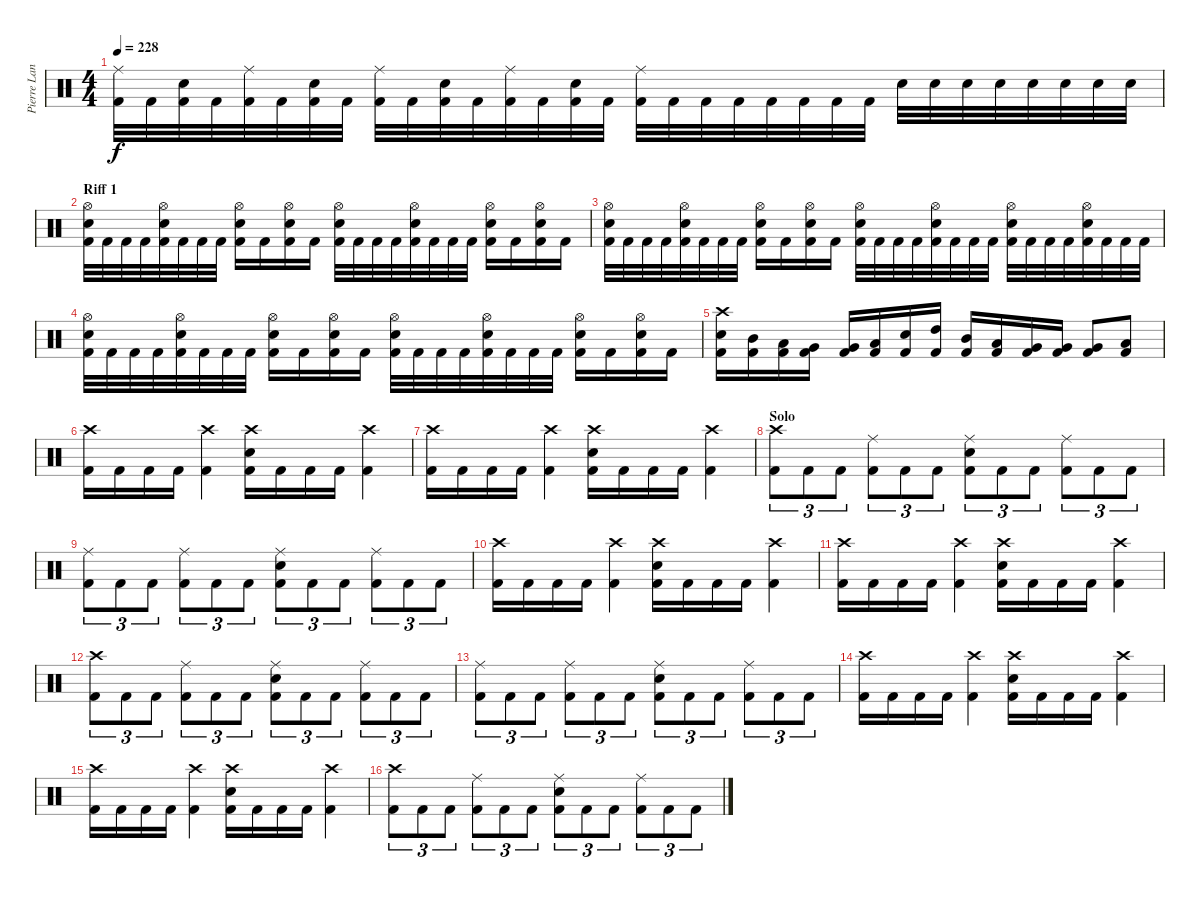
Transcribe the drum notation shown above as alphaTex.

\track ("Pierre Langlois (Drums)" "Pierre Lan") {instrument percussion}
\staff {score}
\articulation defaults
\ts (4 4)
\tempo 228
\clef neutral
\ks c
("Ride (middle)" "Kick (hit) 2").32{dy f} "Kick (hit) 2".32 ("Snare (hit) 2" "Kick (hit) 2").32 "Kick (hit) 2".32 ("Ride (middle)" "Kick (hit) 2").32 "Kick (hit) 2".32 ("Snare (hit) 2" "Kick (hit) 2").32 "Kick (hit) 2".32 ("Ride (middle)" "Kick (hit) 2").32 "Kick (hit) 2".32 ("Snare (hit) 2" "Kick (hit) 2").32 "Kick (hit) 2".32 ("Ride (middle)" "Kick (hit) 2").32 "Kick (hit) 2".32 ("Snare (hit) 2" "Kick (hit) 2").32 "Kick (hit) 2".32 ("Ride (middle)" "Kick (hit) 2").32 "Kick (hit) 2".32 "Kick (hit) 2".32 "Kick (hit) 2".32 "Kick (hit) 2".32 "Kick (hit) 2".32 "Kick (hit) 2".32 "Kick (hit) 2".32 "Snare (hit) 2".32 "Snare (hit) 2".32 "Snare (hit) 2".32 "Snare (hit) 2".32 "Snare (hit) 2".32 "Snare (hit) 2".32 "Snare (hit) 2".32 "Snare (hit) 2".32 |
\section ("" "Riff 1")
("Hi-Hat (open)" "Snare (hit) 2" "Kick (hit) 2").32 "Kick (hit) 2".32 "Kick (hit) 2".32 "Kick (hit) 2".32 ("Hi-Hat (open)" "Snare (hit) 2" "Kick (hit) 2").32 "Kick (hit) 2".32 "Kick (hit) 2".32 "Kick (hit) 2".32 ("Hi-Hat (open)" "Kick (hit) 2" "Snare (hit) 2").16 "Kick (hit) 2".16 ("Hi-Hat (open)" "Snare (hit) 2" "Kick (hit) 2").16 "Kick (hit) 2".16 ("Hi-Hat (open)" "Snare (hit) 2" "Kick (hit) 2").32 "Kick (hit) 2".32 "Kick (hit) 2".32 "Kick (hit) 2".32 ("Hi-Hat (open)" "Snare (hit) 2" "Kick (hit) 2").32 "Kick (hit) 2".32 "Kick (hit) 2".32 "Kick (hit) 2".32 ("Hi-Hat (open)" "Snare (hit) 2" "Kick (hit) 2").16 "Kick (hit) 2".16 ("Hi-Hat (open)" "Snare (hit) 2" "Kick (hit) 2").16 "Kick (hit) 2".16 |
("Hi-Hat (open)" "Snare (hit) 2" "Kick (hit) 2").32 "Kick (hit) 2".32 "Kick (hit) 2".32 "Kick (hit) 2".32 ("Hi-Hat (open)" "Snare (hit) 2" "Kick (hit) 2").32 "Kick (hit) 2".32 "Kick (hit) 2".32 "Kick (hit) 2".32 ("Hi-Hat (open)" "Kick (hit) 2" "Snare (hit) 2").16 "Kick (hit) 2".16 ("Hi-Hat (open)" "Snare (hit) 2" "Kick (hit) 2").16 "Kick (hit) 2".16 ("Hi-Hat (open)" "Snare (hit) 2" "Kick (hit) 2").32 "Kick (hit) 2".32 "Kick (hit) 2".32 "Kick (hit) 2".32 ("Hi-Hat (open)" "Snare (hit) 2" "Kick (hit) 2").32 "Kick (hit) 2".32 "Kick (hit) 2".32 "Kick (hit) 2".32 ("Hi-Hat (open)" "Snare (hit) 2" "Kick (hit) 2").32 "Kick (hit) 2".32 "Kick (hit) 2".32 "Kick (hit) 2".32 ("Hi-Hat (open)" "Snare (hit) 2" "Kick (hit) 2").32 "Kick (hit) 2".32 "Kick (hit) 2".32 "Kick (hit) 2".32 |
("Hi-Hat (open)" "Snare (hit) 2" "Kick (hit) 2").32 "Kick (hit) 2".32 "Kick (hit) 2".32 "Kick (hit) 2".32 ("Hi-Hat (open)" "Snare (hit) 2" "Kick (hit) 2").32 "Kick (hit) 2".32 "Kick (hit) 2".32 "Kick (hit) 2".32 ("Hi-Hat (open)" "Kick (hit) 2" "Snare (hit) 2").16 "Kick (hit) 2".16 ("Hi-Hat (open)" "Snare (hit) 2" "Kick (hit) 2").16 "Kick (hit) 2".16 ("Hi-Hat (open)" "Snare (hit) 2" "Kick (hit) 2").32 "Kick (hit) 2".32 "Kick (hit) 2".32 "Kick (hit) 2".32 ("Hi-Hat (open)" "Snare (hit) 2" "Kick (hit) 2").32 "Kick (hit) 2".32 "Kick (hit) 2".32 "Kick (hit) 2".32 ("Hi-Hat (open)" "Snare (hit) 2" "Kick (hit) 2").16 "Kick (hit) 2".16 ("Hi-Hat (open)" "Snare (hit) 2" "Kick (hit) 2").16 "Kick (hit) 2".16 |
("Crash high (hit)" "Snare (hit) 2" "Kick (hit) 2").16 ("Mid Tom (hit)" "Kick (hit) 2").16 ("Low Tom (hit)" "Kick (hit) 2").16 ("Very Low Tom (hit)" "Kick (hit) 2").16 ("Very Low Tom (hit)" "Kick (hit) 2").16 ("Low Floor Tom (hit)" "Kick (hit) 2").16 ("Snare (hit) 2" "Kick (hit) 2").16 ("High Tom (hit)" "Kick (hit) 2").16 ("Mid Tom (hit)" "Kick (hit) 2").16 ("Low Tom (hit)" "Kick (hit) 2").16 ("Very Low Tom (hit)" "Kick (hit) 2").16 ("Very Low Tom (hit)" "Kick (hit) 2").16 ("Very Low Tom (hit)" "Kick (hit) 2").8 ("Low Floor Tom (hit)" "Kick (hit) 2").8 |
("Crash high (hit)" "Kick (hit) 2").16 "Kick (hit) 2".16 "Kick (hit) 2".16 "Kick (hit) 2".16 ("Crash high (hit)" "Kick (hit) 2").4 ("Crash high (hit)" "Snare (hit) 2" "Kick (hit) 2").16 "Kick (hit) 2".16 "Kick (hit) 2".16 "Kick (hit) 2".16 ("Crash high (hit)" "Kick (hit) 2").4 |
("Crash high (hit)" "Kick (hit) 2").16 "Kick (hit) 2".16 "Kick (hit) 2".16 "Kick (hit) 2".16 ("Crash high (hit)" "Kick (hit) 2").4 ("Crash high (hit)" "Snare (hit) 2" "Kick (hit) 2").16 "Kick (hit) 2".16 "Kick (hit) 2".16 "Kick (hit) 2".16 ("Crash high (hit)" "Kick (hit) 2").4 |
\section ("" "Solo")
("Crash high (hit)" "Kick (hit) 2").8{tu (3 2)} "Kick (hit) 2".8{tu (3 2)} "Kick (hit) 2".8{tu (3 2)} ("Ride (middle)" "Kick (hit) 2").8{tu (3 2)} "Kick (hit) 2".8{tu (3 2)} "Kick (hit) 2".8{tu (3 2)} ("Ride (middle)" "Snare (hit) 2" "Kick (hit) 2").8{tu (3 2)} "Kick (hit) 2".8{tu (3 2)} "Kick (hit) 2".8{tu (3 2)} ("Ride (middle)" "Kick (hit) 2").8{tu (3 2)} "Kick (hit) 2".8{tu (3 2)} "Kick (hit) 2".8{tu (3 2)} |
("Ride (middle)" "Kick (hit) 2").8{tu (3 2)} "Kick (hit) 2".8{tu (3 2)} "Kick (hit) 2".8{tu (3 2)} ("Ride (middle)" "Kick (hit) 2").8{tu (3 2)} "Kick (hit) 2".8{tu (3 2)} "Kick (hit) 2".8{tu (3 2)} ("Ride (middle)" "Snare (hit) 2" "Kick (hit) 2").8{tu (3 2)} "Kick (hit) 2".8{tu (3 2)} "Kick (hit) 2".8{tu (3 2)} ("Ride (middle)" "Kick (hit) 2").8{tu (3 2)} "Kick (hit) 2".8{tu (3 2)} "Kick (hit) 2".8{tu (3 2)} |
("Crash high (hit)" "Kick (hit) 2").16 "Kick (hit) 2".16 "Kick (hit) 2".16 "Kick (hit) 2".16 ("Crash high (hit)" "Kick (hit) 2").4 ("Crash high (hit)" "Snare (hit) 2" "Kick (hit) 2").16 "Kick (hit) 2".16 "Kick (hit) 2".16 "Kick (hit) 2".16 ("Crash high (hit)" "Kick (hit) 2").4 |
("Crash high (hit)" "Kick (hit) 2").16 "Kick (hit) 2".16 "Kick (hit) 2".16 "Kick (hit) 2".16 ("Crash high (hit)" "Kick (hit) 2").4 ("Crash high (hit)" "Snare (hit) 2" "Kick (hit) 2").16 "Kick (hit) 2".16 "Kick (hit) 2".16 "Kick (hit) 2".16 ("Crash high (hit)" "Kick (hit) 2").4 |
("Crash high (hit)" "Kick (hit) 2").8{tu (3 2)} "Kick (hit) 2".8{tu (3 2)} "Kick (hit) 2".8{tu (3 2)} ("Ride (middle)" "Kick (hit) 2").8{tu (3 2)} "Kick (hit) 2".8{tu (3 2)} "Kick (hit) 2".8{tu (3 2)} ("Ride (middle)" "Snare (hit) 2" "Kick (hit) 2").8{tu (3 2)} "Kick (hit) 2".8{tu (3 2)} "Kick (hit) 2".8{tu (3 2)} ("Ride (middle)" "Kick (hit) 2").8{tu (3 2)} "Kick (hit) 2".8{tu (3 2)} "Kick (hit) 2".8{tu (3 2)} |
("Ride (middle)" "Kick (hit) 2").8{tu (3 2)} "Kick (hit) 2".8{tu (3 2)} "Kick (hit) 2".8{tu (3 2)} ("Ride (middle)" "Kick (hit) 2").8{tu (3 2)} "Kick (hit) 2".8{tu (3 2)} "Kick (hit) 2".8{tu (3 2)} ("Ride (middle)" "Snare (hit) 2" "Kick (hit) 2").8{tu (3 2)} "Kick (hit) 2".8{tu (3 2)} "Kick (hit) 2".8{tu (3 2)} ("Ride (middle)" "Kick (hit) 2").8{tu (3 2)} "Kick (hit) 2".8{tu (3 2)} "Kick (hit) 2".8{tu (3 2)} |
("Crash high (hit)" "Kick (hit) 2").16 "Kick (hit) 2".16 "Kick (hit) 2".16 "Kick (hit) 2".16 ("Crash high (hit)" "Kick (hit) 2").4 ("Crash high (hit)" "Snare (hit) 2" "Kick (hit) 2").16 "Kick (hit) 2".16 "Kick (hit) 2".16 "Kick (hit) 2".16 ("Crash high (hit)" "Kick (hit) 2").4 |
("Crash high (hit)" "Kick (hit) 2").16 "Kick (hit) 2".16 "Kick (hit) 2".16 "Kick (hit) 2".16 ("Crash high (hit)" "Kick (hit) 2").4 ("Crash high (hit)" "Snare (hit) 2" "Kick (hit) 2").16 "Kick (hit) 2".16 "Kick (hit) 2".16 "Kick (hit) 2".16 ("Crash high (hit)" "Kick (hit) 2").4 |
("Crash high (hit)" "Kick (hit) 2").8{tu (3 2)} "Kick (hit) 2".8{tu (3 2)} "Kick (hit) 2".8{tu (3 2)} ("Ride (middle)" "Kick (hit) 2").8{tu (3 2)} "Kick (hit) 2".8{tu (3 2)} "Kick (hit) 2".8{tu (3 2)} ("Ride (middle)" "Snare (hit) 2" "Kick (hit) 2").8{tu (3 2)} "Kick (hit) 2".8{tu (3 2)} "Kick (hit) 2".8{tu (3 2)} ("Ride (middle)" "Kick (hit) 2").8{tu (3 2)} "Kick (hit) 2".8{tu (3 2)} "Kick (hit) 2".8{tu (3 2)}
